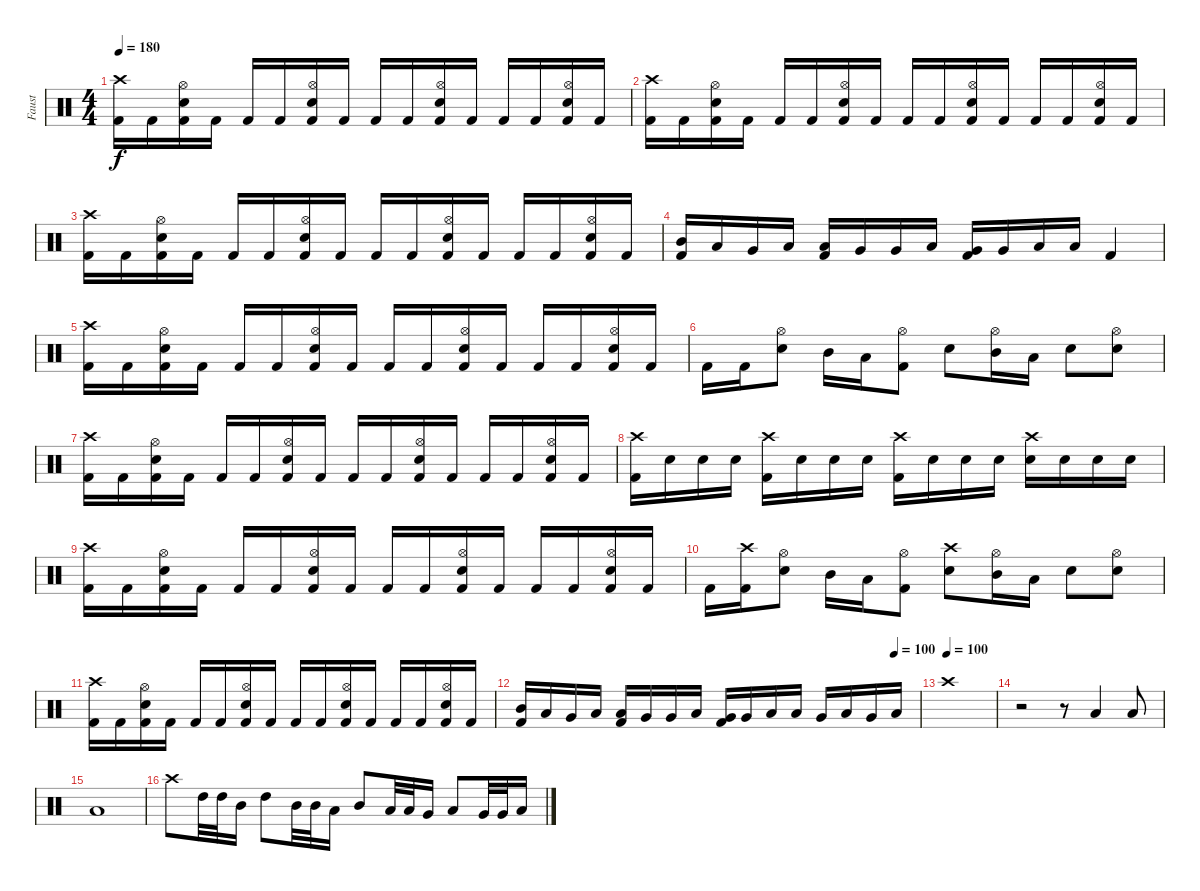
\track ("Faust" "Faust") {instrument percussion}
\staff {score}
\articulation defaults
\ts (4 4)
\tempo 180
\clef neutral
\ks c
("Crash high (hit)" "Kick (hit) 2").16{dy f} "Kick (hit) 2".16 ("Hi-Hat (open)" "Snare (hit) 2" "Kick (hit) 2").16 "Kick (hit) 2".16 "Kick (hit) 2".16 "Kick (hit) 2".16 ("Hi-Hat (open)" "Snare (hit) 2" "Kick (hit) 2").16 "Kick (hit) 2".16 "Kick (hit) 2".16 "Kick (hit) 2".16 ("Hi-Hat (open)" "Snare (hit) 2" "Kick (hit) 2").16 "Kick (hit) 2".16 "Kick (hit) 2".16 "Kick (hit) 2".16 ("Hi-Hat (open)" "Snare (hit) 2" "Kick (hit) 2").16 "Kick (hit) 2".16 |
("Crash high (hit)" "Kick (hit) 2").16 "Kick (hit) 2".16 ("Hi-Hat (open)" "Snare (hit) 2" "Kick (hit) 2").16 "Kick (hit) 2".16 "Kick (hit) 2".16 "Kick (hit) 2".16 ("Hi-Hat (open)" "Snare (hit) 2" "Kick (hit) 2").16 "Kick (hit) 2".16 "Kick (hit) 2".16 "Kick (hit) 2".16 ("Hi-Hat (open)" "Snare (hit) 2" "Kick (hit) 2").16 "Kick (hit) 2".16 "Kick (hit) 2".16 "Kick (hit) 2".16 ("Hi-Hat (open)" "Snare (hit) 2" "Kick (hit) 2").16 "Kick (hit) 2".16 |
("Crash high (hit)" "Kick (hit) 2").16 "Kick (hit) 2".16 ("Hi-Hat (open)" "Snare (hit) 2" "Kick (hit) 2").16 "Kick (hit) 2".16 "Kick (hit) 2".16 "Kick (hit) 2".16 ("Hi-Hat (open)" "Snare (hit) 2" "Kick (hit) 2").16 "Kick (hit) 2".16 "Kick (hit) 2".16 "Kick (hit) 2".16 ("Hi-Hat (open)" "Snare (hit) 2" "Kick (hit) 2").16 "Kick (hit) 2".16 "Kick (hit) 2".16 "Kick (hit) 2".16 ("Hi-Hat (open)" "Snare (hit) 2" "Kick (hit) 2").16 "Kick (hit) 2".16 |
("Mid Tom (hit)" "Kick (hit) 2").16 "Low Tom (hit)".16 "Very Low Tom (hit)".16 "Low Floor Tom (hit)".16 ("Low Tom (hit)" "Kick (hit) 2").16 "Very Low Tom (hit)".16 "Very Low Tom (hit)".16 "Low Floor Tom (hit)".16 ("Very Low Tom (hit)" "Kick (hit) 2").16 "Very Low Tom (hit)".16 "Low Floor Tom (hit)".16 "Low Floor Tom (hit)".16 "Kick (hit) 2".4 |
("Crash high (hit)" "Kick (hit) 2").16 "Kick (hit) 2".16 ("Hi-Hat (open)" "Snare (hit) 2" "Kick (hit) 2").16 "Kick (hit) 2".16 "Kick (hit) 2".16 "Kick (hit) 2".16 ("Hi-Hat (open)" "Snare (hit) 2" "Kick (hit) 2").16 "Kick (hit) 2".16 "Kick (hit) 2".16 "Kick (hit) 2".16 ("Hi-Hat (open)" "Snare (hit) 2" "Kick (hit) 2").16 "Kick (hit) 2".16 "Kick (hit) 2".16 "Kick (hit) 2".16 ("Hi-Hat (open)" "Snare (hit) 2" "Kick (hit) 2").16 "Kick (hit) 2".16 |
"Kick (hit) 2".16 "Kick (hit) 2".16 ("Hi-Hat (open)" "Snare (hit) 2").8 "Mid Tom (hit)".16 "Low Tom (hit)".16 ("Hi-Hat (open)" "Kick (hit) 2").8 "Snare (hit) 2".8 ("Hi-Hat (open)" "Mid Tom (hit)").16 "Low Tom (hit)".16 "Snare (hit) 2".8 ("Hi-Hat (open)" "Snare (hit) 2").8 |
("Crash high (hit)" "Kick (hit) 2").16 "Kick (hit) 2".16 ("Hi-Hat (open)" "Snare (hit) 2" "Kick (hit) 2").16 "Kick (hit) 2".16 "Kick (hit) 2".16 "Kick (hit) 2".16 ("Hi-Hat (open)" "Snare (hit) 2" "Kick (hit) 2").16 "Kick (hit) 2".16 "Kick (hit) 2".16 "Kick (hit) 2".16 ("Hi-Hat (open)" "Snare (hit) 2" "Kick (hit) 2").16 "Kick (hit) 2".16 "Kick (hit) 2".16 "Kick (hit) 2".16 ("Hi-Hat (open)" "Snare (hit) 2" "Kick (hit) 2").16 "Kick (hit) 2".16 |
("Crash high (hit)" "Kick (hit) 2").16 "Snare (hit) 2".16 "Snare (hit) 2".16 "Snare (hit) 2".16 ("Crash high (hit)" "Kick (hit) 2").16 "Snare (hit) 2".16 "Snare (hit) 2".16 "Snare (hit) 2".16 ("Crash high (hit)" "Kick (hit) 2").16 "Snare (hit) 2".16 "Snare (hit) 2".16 "Snare (hit) 2".16 ("Crash high (hit)" "Snare (hit) 2").16 "Snare (hit) 2".16 "Snare (hit) 2".16 "Snare (hit) 2".16 |
("Crash high (hit)" "Kick (hit) 2").16 "Kick (hit) 2".16 ("Hi-Hat (open)" "Snare (hit) 2" "Kick (hit) 2").16 "Kick (hit) 2".16 "Kick (hit) 2".16 "Kick (hit) 2".16 ("Hi-Hat (open)" "Snare (hit) 2" "Kick (hit) 2").16 "Kick (hit) 2".16 "Kick (hit) 2".16 "Kick (hit) 2".16 ("Hi-Hat (open)" "Snare (hit) 2" "Kick (hit) 2").16 "Kick (hit) 2".16 "Kick (hit) 2".16 "Kick (hit) 2".16 ("Hi-Hat (open)" "Snare (hit) 2" "Kick (hit) 2").16 "Kick (hit) 2".16 |
"Kick (hit) 2".16 ("Crash high (hit)" "Kick (hit) 2").16 ("Hi-Hat (open)" "Snare (hit) 2").8 "Mid Tom (hit)".16 "Low Tom (hit)".16 ("Hi-Hat (open)" "Kick (hit) 2").8 ("Crash high (hit)" "Snare (hit) 2").8 ("Hi-Hat (open)" "Mid Tom (hit)").16 "Low Tom (hit)".16 "Snare (hit) 2".8 ("Hi-Hat (open)" "Snare (hit) 2").8 |
("Crash high (hit)" "Kick (hit) 2").16 "Kick (hit) 2".16 ("Hi-Hat (open)" "Snare (hit) 2" "Kick (hit) 2").16 "Kick (hit) 2".16 "Kick (hit) 2".16 "Kick (hit) 2".16 ("Hi-Hat (open)" "Snare (hit) 2" "Kick (hit) 2").16 "Kick (hit) 2".16 "Kick (hit) 2".16 "Kick (hit) 2".16 ("Hi-Hat (open)" "Snare (hit) 2" "Kick (hit) 2").16 "Kick (hit) 2".16 "Kick (hit) 2".16 "Kick (hit) 2".16 ("Hi-Hat (open)" "Snare (hit) 2" "Kick (hit) 2").16 "Kick (hit) 2".16 |
\tempo (100 0.9375)
("Mid Tom (hit)" "Kick (hit) 2").16 "Low Tom (hit)".16 "Very Low Tom (hit)".16 "Low Floor Tom (hit)".16 ("Low Tom (hit)" "Kick (hit) 2").16 "Very Low Tom (hit)".16 "Very Low Tom (hit)".16 "Low Floor Tom (hit)".16 ("Very Low Tom (hit)" "Kick (hit) 2").16 "Very Low Tom (hit)".16 "Low Floor Tom (hit)".16 "Low Floor Tom (hit)".16 "Very Low Tom (hit)".16 "Low Floor Tom (hit)".16 "Very Low Tom (hit)".16 "Low Floor Tom (hit)".16 |
\tempo (100)
"Crash high (hit)".1 |
r.2 r.8 "Low Tom (hit)".4 "Low Tom (hit)".8 |
"Low Tom (hit)".1 |
"Crash high (hit)".8 "High Tom (hit)".32 "High Tom (hit)".32 "Mid Tom (hit)".16 "High Tom (hit)".8 "Mid Tom (hit)".32 "Mid Tom (hit)".32 "Low Tom (hit)".16 "Mid Tom (hit)".8 "Low Tom (hit)".32 "Low Tom (hit)".32 "Very Low Tom (hit)".16 "Low Tom (hit)".8 "Very Low Tom (hit)".32 "Very Low Tom (hit)".32 "Low Floor Tom (hit)".16
